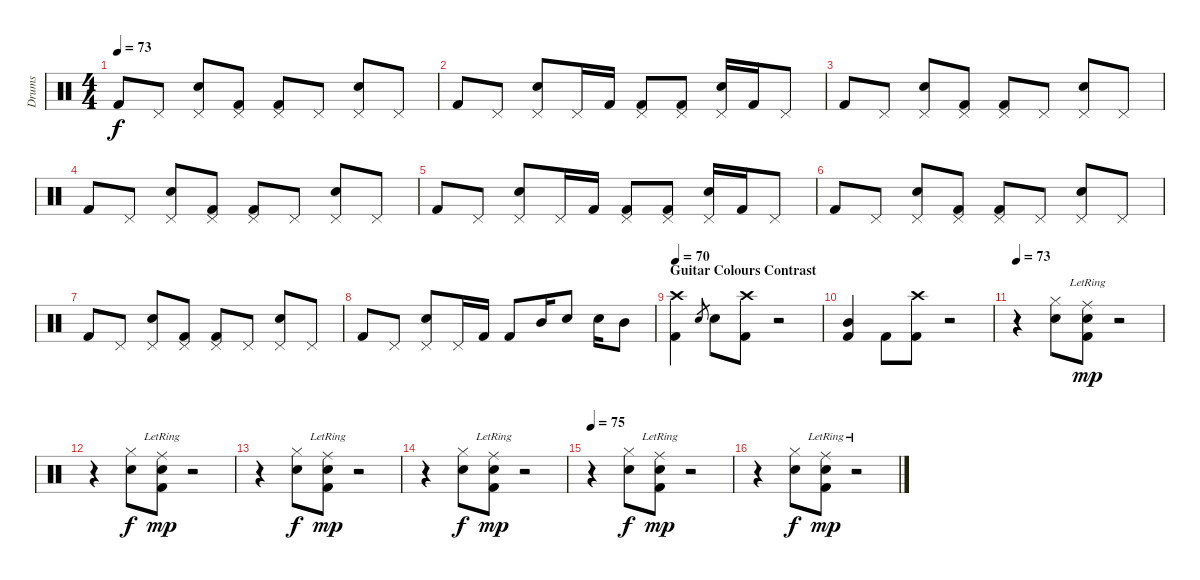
\track ("Drums" "Drums") {instrument percussion}
\staff {score}
\articulation defaults
\ts (4 4)
\tempo 73
\clef neutral
\ks c "Kick (hit) 2".8{dy f} "Pedal Hi-Hat (hit)".8
("Pedal Hi-Hat (hit)" "Electric Snare (hit)").8 ("Pedal Hi-Hat (hit)" "Kick (hit) 2").8 ("Pedal Hi-Hat (hit)" "Kick (hit) 2").8 "Pedal Hi-Hat (hit)".8 ("Pedal Hi-Hat (hit)" "Electric Snare (hit)").8 "Pedal Hi-Hat (hit)".8 |
"Kick (hit) 2".8 "Pedal Hi-Hat (hit)".8 ("Pedal Hi-Hat (hit)" "Electric Snare (hit)").8 "Pedal Hi-Hat (hit)".16 "Kick (hit) 2".16 ("Pedal Hi-Hat (hit)" "Kick (hit) 2").8 ("Pedal Hi-Hat (hit)" "Kick (hit) 2").8 ("Pedal Hi-Hat (hit)" "Electric Snare (hit)").16 "Kick (hit) 2".16 "Pedal Hi-Hat (hit)".8 |
"Kick (hit) 2".8 "Pedal Hi-Hat (hit)".8 ("Pedal Hi-Hat (hit)" "Electric Snare (hit)").8 ("Pedal Hi-Hat (hit)" "Kick (hit) 2").8 ("Pedal Hi-Hat (hit)" "Kick (hit) 2").8 "Pedal Hi-Hat (hit)".8 ("Pedal Hi-Hat (hit)" "Electric Snare (hit)").8 "Pedal Hi-Hat (hit)".8 |
"Kick (hit) 2".8 "Pedal Hi-Hat (hit)".8 ("Pedal Hi-Hat (hit)" "Electric Snare (hit)").8 ("Pedal Hi-Hat (hit)" "Kick (hit) 2").8 ("Pedal Hi-Hat (hit)" "Kick (hit) 2").8 "Pedal Hi-Hat (hit)".8 ("Pedal Hi-Hat (hit)" "Electric Snare (hit)").8 "Pedal Hi-Hat (hit)".8 |
"Kick (hit) 2".8 "Pedal Hi-Hat (hit)".8 ("Pedal Hi-Hat (hit)" "Electric Snare (hit)").8 "Pedal Hi-Hat (hit)".16 "Kick (hit) 2".16 ("Pedal Hi-Hat (hit)" "Kick (hit) 2").8 ("Pedal Hi-Hat (hit)" "Kick (hit) 2").8 ("Pedal Hi-Hat (hit)" "Electric Snare (hit)").16 "Kick (hit) 2".16 "Pedal Hi-Hat (hit)".8 |
"Kick (hit) 2".8 "Pedal Hi-Hat (hit)".8 ("Pedal Hi-Hat (hit)" "Electric Snare (hit)").8 ("Pedal Hi-Hat (hit)" "Kick (hit) 2").8 ("Pedal Hi-Hat (hit)" "Kick (hit) 2").8 "Pedal Hi-Hat (hit)".8 ("Pedal Hi-Hat (hit)" "Electric Snare (hit)").8 "Pedal Hi-Hat (hit)".8 |
"Kick (hit) 2".8 "Pedal Hi-Hat (hit)".8 ("Pedal Hi-Hat (hit)" "Electric Snare (hit)").8 ("Pedal Hi-Hat (hit)" "Kick (hit) 2").8 ("Pedal Hi-Hat (hit)" "Kick (hit) 2").8 "Pedal Hi-Hat (hit)".8 ("Pedal Hi-Hat (hit)" "Electric Snare (hit)").8 "Pedal Hi-Hat (hit)".8 |
"Kick (hit) 2".8 "Pedal Hi-Hat (hit)".8 ("Pedal Hi-Hat (hit)" "Electric Snare (hit)").8 "Pedal Hi-Hat (hit)".16 "Kick (hit) 2".16 "Kick (hit) 2".8 "Mid Tom (hit)".16 "Electric Snare (hit)".8 "Electric Snare (hit)".16 "Mid Tom (hit)".8 |
\section ("" "Guitar Colours Contrast")
\tempo 70
("Crash high (hit)" "Kick (hit) 2").4 "Electric Snare (hit)".8{gr} "Electric Snare (hit)".8 ("Crash high (hit)" "Kick (hit) 2").8 r.2 |
("Mid Tom (hit)" "Kick (hit) 2").4 "Kick (hit) 2".8 ("Crash high (hit)" "Kick (hit) 2").8 r.2 |
\tempo 73
r.4 ("Hi-Hat (closed)" "Electric Snare (hit)").8 ("Ride (middle)"{lr} "Electric Snare (hit)" "Kick (hit) 2").8{dy mp} r.2 |
r.4 ("Hi-Hat (closed)" "Electric Snare (hit)").8{dy f} ("Ride (middle)"{lr} "Electric Snare (hit)" "Kick (hit) 2").8{dy mp} r.2 |
r.4 ("Hi-Hat (closed)" "Electric Snare (hit)").8{dy f} ("Ride (middle)"{lr} "Electric Snare (hit)" "Kick (hit) 2").8{dy mp} r.2 |
r.4 ("Hi-Hat (closed)" "Electric Snare (hit)").8{dy f} ("Ride (middle)"{lr} "Electric Snare (hit)" "Kick (hit) 2").8{dy mp} r.2 |
\tempo 75
r.4 ("Hi-Hat (closed)" "Electric Snare (hit)").8{dy f} ("Ride (middle)"{lr} "Electric Snare (hit)" "Kick (hit) 2").8{dy mp} r.2 |
r.4 ("Hi-Hat (closed)" "Electric Snare (hit)").8{dy f} ("Ride (middle)"{lr} "Electric Snare (hit)" "Kick (hit) 2").8{dy mp} r.2
